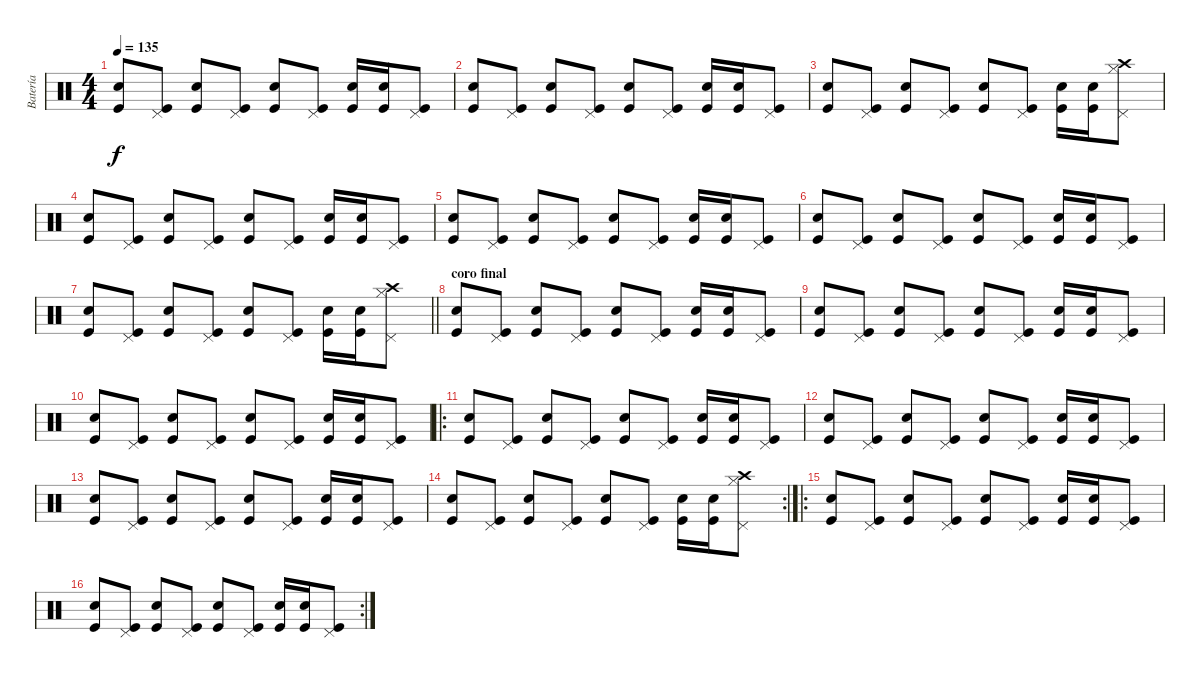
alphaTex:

\track ("Batería" "Batería") {instrument percussion}
\staff {score}
\articulation defaults
\ts (4 4)
\tempo 135
\clef neutral
\ks c
("Kick (hit)" "Electric Snare (hit)").8{dy f} ("Kick (hit)" "Pedal Hi-Hat (hit)").8 ("Kick (hit)" "Electric Snare (hit)").8 ("Kick (hit)" "Pedal Hi-Hat (hit)").8 ("Kick (hit)" "Electric Snare (hit)").8 ("Kick (hit)" "Pedal Hi-Hat (hit)").8 ("Kick (hit)" "Electric Snare (hit)").16 ("Kick (hit)" "Electric Snare (hit)").16 ("Kick (hit)" "Pedal Hi-Hat (hit)").8 |
("Kick (hit)" "Electric Snare (hit)").8 ("Kick (hit)" "Pedal Hi-Hat (hit)").8 ("Kick (hit)" "Electric Snare (hit)").8 ("Kick (hit)" "Pedal Hi-Hat (hit)").8 ("Kick (hit)" "Electric Snare (hit)").8 ("Kick (hit)" "Pedal Hi-Hat (hit)").8 ("Kick (hit)" "Electric Snare (hit)").16 ("Kick (hit)" "Electric Snare (hit)").16 ("Kick (hit)" "Pedal Hi-Hat (hit)").8 |
("Kick (hit)" "Electric Snare (hit)").8 ("Kick (hit)" "Pedal Hi-Hat (hit)").8 ("Kick (hit)" "Electric Snare (hit)").8 ("Kick (hit)" "Pedal Hi-Hat (hit)").8 ("Kick (hit)" "Electric Snare (hit)").8 ("Kick (hit)" "Pedal Hi-Hat (hit)").8 ("Kick (hit)" "Electric Snare (hit)").16 ("Kick (hit)" "Electric Snare (hit)").16 ("Crash high (hit)" "Hi-Hat (closed)" "Pedal Hi-Hat (hit)").8 |
("Kick (hit)" "Electric Snare (hit)").8 ("Kick (hit)" "Pedal Hi-Hat (hit)").8 ("Kick (hit)" "Electric Snare (hit)").8 ("Kick (hit)" "Pedal Hi-Hat (hit)").8 ("Kick (hit)" "Electric Snare (hit)").8 ("Kick (hit)" "Pedal Hi-Hat (hit)").8 ("Kick (hit)" "Electric Snare (hit)").16 ("Kick (hit)" "Electric Snare (hit)").16 ("Kick (hit)" "Pedal Hi-Hat (hit)").8 |
("Kick (hit)" "Electric Snare (hit)").8 ("Kick (hit)" "Pedal Hi-Hat (hit)").8 ("Kick (hit)" "Electric Snare (hit)").8 ("Kick (hit)" "Pedal Hi-Hat (hit)").8 ("Kick (hit)" "Electric Snare (hit)").8 ("Kick (hit)" "Pedal Hi-Hat (hit)").8 ("Kick (hit)" "Electric Snare (hit)").16 ("Kick (hit)" "Electric Snare (hit)").16 ("Kick (hit)" "Pedal Hi-Hat (hit)").8 |
("Kick (hit)" "Electric Snare (hit)").8 ("Kick (hit)" "Pedal Hi-Hat (hit)").8 ("Kick (hit)" "Electric Snare (hit)").8 ("Kick (hit)" "Pedal Hi-Hat (hit)").8 ("Kick (hit)" "Electric Snare (hit)").8 ("Kick (hit)" "Pedal Hi-Hat (hit)").8 ("Kick (hit)" "Electric Snare (hit)").16 ("Kick (hit)" "Electric Snare (hit)").16 ("Kick (hit)" "Pedal Hi-Hat (hit)").8 |
\barLineRight lightlight
("Kick (hit)" "Electric Snare (hit)").8 ("Kick (hit)" "Pedal Hi-Hat (hit)").8 ("Kick (hit)" "Electric Snare (hit)").8 ("Kick (hit)" "Pedal Hi-Hat (hit)").8 ("Kick (hit)" "Electric Snare (hit)").8 ("Kick (hit)" "Pedal Hi-Hat (hit)").8 ("Kick (hit)" "Electric Snare (hit)").16 ("Kick (hit)" "Electric Snare (hit)").16 ("Crash high (hit)" "Hi-Hat (closed)" "Pedal Hi-Hat (hit)").8 |
\section ("" "coro final")
("Kick (hit)" "Electric Snare (hit)").8 ("Kick (hit)" "Pedal Hi-Hat (hit)").8 ("Kick (hit)" "Electric Snare (hit)").8 ("Kick (hit)" "Pedal Hi-Hat (hit)").8 ("Kick (hit)" "Electric Snare (hit)").8 ("Kick (hit)" "Pedal Hi-Hat (hit)").8 ("Kick (hit)" "Electric Snare (hit)").16 ("Kick (hit)" "Electric Snare (hit)").16 ("Kick (hit)" "Pedal Hi-Hat (hit)").8 |
("Kick (hit)" "Electric Snare (hit)").8 ("Kick (hit)" "Pedal Hi-Hat (hit)").8 ("Kick (hit)" "Electric Snare (hit)").8 ("Kick (hit)" "Pedal Hi-Hat (hit)").8 ("Kick (hit)" "Electric Snare (hit)").8 ("Kick (hit)" "Pedal Hi-Hat (hit)").8 ("Kick (hit)" "Electric Snare (hit)").16 ("Kick (hit)" "Electric Snare (hit)").16 ("Kick (hit)" "Pedal Hi-Hat (hit)").8 |
("Kick (hit)" "Electric Snare (hit)").8 ("Kick (hit)" "Pedal Hi-Hat (hit)").8 ("Kick (hit)" "Electric Snare (hit)").8 ("Kick (hit)" "Pedal Hi-Hat (hit)").8 ("Kick (hit)" "Electric Snare (hit)").8 ("Kick (hit)" "Pedal Hi-Hat (hit)").8 ("Kick (hit)" "Electric Snare (hit)").16 ("Kick (hit)" "Electric Snare (hit)").16 ("Kick (hit)" "Pedal Hi-Hat (hit)").8 |
\ro
("Kick (hit)" "Electric Snare (hit)").8 ("Kick (hit)" "Pedal Hi-Hat (hit)").8 ("Kick (hit)" "Electric Snare (hit)").8 ("Kick (hit)" "Pedal Hi-Hat (hit)").8 ("Kick (hit)" "Electric Snare (hit)").8 ("Kick (hit)" "Pedal Hi-Hat (hit)").8 ("Kick (hit)" "Electric Snare (hit)").16 ("Kick (hit)" "Electric Snare (hit)").16 ("Kick (hit)" "Pedal Hi-Hat (hit)").8 |
("Kick (hit)" "Electric Snare (hit)").8 ("Kick (hit)" "Pedal Hi-Hat (hit)").8 ("Kick (hit)" "Electric Snare (hit)").8 ("Kick (hit)" "Pedal Hi-Hat (hit)").8 ("Kick (hit)" "Electric Snare (hit)").8 ("Kick (hit)" "Pedal Hi-Hat (hit)").8 ("Kick (hit)" "Electric Snare (hit)").16 ("Kick (hit)" "Electric Snare (hit)").16 ("Kick (hit)" "Pedal Hi-Hat (hit)").8 |
("Kick (hit)" "Electric Snare (hit)").8 ("Kick (hit)" "Pedal Hi-Hat (hit)").8 ("Kick (hit)" "Electric Snare (hit)").8 ("Kick (hit)" "Pedal Hi-Hat (hit)").8 ("Kick (hit)" "Electric Snare (hit)").8 ("Kick (hit)" "Pedal Hi-Hat (hit)").8 ("Kick (hit)" "Electric Snare (hit)").16 ("Kick (hit)" "Electric Snare (hit)").16 ("Kick (hit)" "Pedal Hi-Hat (hit)").8 |
\rc 2
("Kick (hit)" "Electric Snare (hit)").8 ("Kick (hit)" "Pedal Hi-Hat (hit)").8 ("Kick (hit)" "Electric Snare (hit)").8 ("Kick (hit)" "Pedal Hi-Hat (hit)").8 ("Kick (hit)" "Electric Snare (hit)").8 ("Kick (hit)" "Pedal Hi-Hat (hit)").8 ("Kick (hit)" "Electric Snare (hit)").16 ("Kick (hit)" "Electric Snare (hit)").16 ("Crash high (hit)" "Hi-Hat (closed)" "Pedal Hi-Hat (hit)").8 |
\ro
("Kick (hit)" "Electric Snare (hit)").8 ("Kick (hit)" "Pedal Hi-Hat (hit)").8 ("Kick (hit)" "Electric Snare (hit)").8 ("Kick (hit)" "Pedal Hi-Hat (hit)").8 ("Kick (hit)" "Electric Snare (hit)").8 ("Kick (hit)" "Pedal Hi-Hat (hit)").8 ("Kick (hit)" "Electric Snare (hit)").16 ("Kick (hit)" "Electric Snare (hit)").16 ("Kick (hit)" "Pedal Hi-Hat (hit)").8 |
\rc 2
("Kick (hit)" "Electric Snare (hit)").8 ("Kick (hit)" "Pedal Hi-Hat (hit)").8 ("Kick (hit)" "Electric Snare (hit)").8 ("Kick (hit)" "Pedal Hi-Hat (hit)").8 ("Kick (hit)" "Electric Snare (hit)").8 ("Kick (hit)" "Pedal Hi-Hat (hit)").8 ("Kick (hit)" "Electric Snare (hit)").16 ("Kick (hit)" "Electric Snare (hit)").16 ("Kick (hit)" "Pedal Hi-Hat (hit)").8
